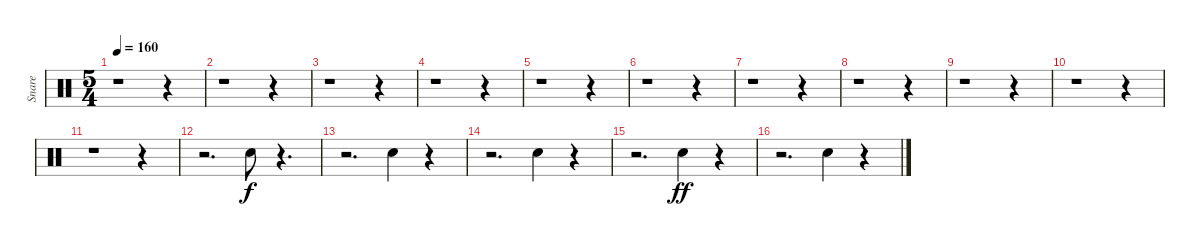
\track ("Snare" "Snare") {instrument percussion}
\staff {score}
\articulation defaults
\ts (5 4)
\tempo 160
\clef neutral
\ks c
r.1{dy f} r.4 |
r.1 r.4 |
r.1 r.4 |
r.1 r.4 |
r.1 r.4 |
r.1 r.4 |
r.1 r.4 |
r.1 r.4 |
r.1 r.4 |
r.1 r.4 |
r.1 r.4 |
r.2{d} "Electric Snare (hit)".8 r.4{d} |
r.2{d} "Electric Snare (hit)".4 r.4 |
r.2{d} "Electric Snare (hit)".4 r.4 |
r.2{d} "Electric Snare (hit)".4{dy ff} r.4 |
r.2{d} "Electric Snare (hit)".4 r.4
